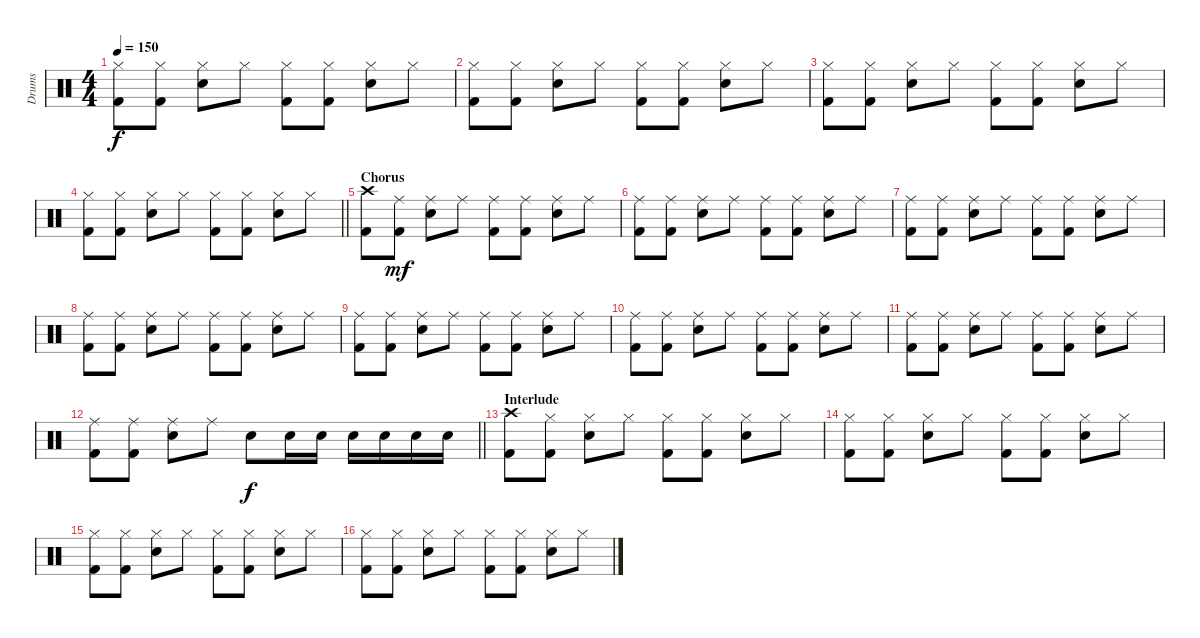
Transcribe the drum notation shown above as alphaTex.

\track ("Drums" "Drums") {instrument percussion}
\staff {score}
\articulation defaults
\ts (4 4)
\tempo 150
\clef neutral
\ks c
("Hi-Hat (closed)" "Kick (hit) 2").8{dy f} ("Hi-Hat (closed)" "Kick (hit) 2").8 ("Hi-Hat (closed)" "Electric Snare (hit)").8 "Hi-Hat (closed)".8 ("Hi-Hat (closed)" "Kick (hit) 2").8 ("Hi-Hat (closed)" "Kick (hit) 2").8 ("Hi-Hat (closed)" "Electric Snare (hit)").8 "Hi-Hat (closed)".8 |
("Hi-Hat (closed)" "Kick (hit) 2").8 ("Hi-Hat (closed)" "Kick (hit) 2").8 ("Hi-Hat (closed)" "Electric Snare (hit)").8 "Hi-Hat (closed)".8 ("Hi-Hat (closed)" "Kick (hit) 2").8 ("Hi-Hat (closed)" "Kick (hit) 2").8 ("Hi-Hat (closed)" "Electric Snare (hit)").8 "Hi-Hat (closed)".8 |
("Hi-Hat (closed)" "Kick (hit) 2").8 ("Hi-Hat (closed)" "Kick (hit) 2").8 ("Hi-Hat (closed)" "Electric Snare (hit)").8 "Hi-Hat (closed)".8 ("Hi-Hat (closed)" "Kick (hit) 2").8 ("Hi-Hat (closed)" "Kick (hit) 2").8 ("Hi-Hat (closed)" "Electric Snare (hit)").8 "Hi-Hat (closed)".8 |
\barLineRight lightlight
("Hi-Hat (closed)" "Kick (hit) 2").8 ("Hi-Hat (closed)" "Kick (hit) 2").8 ("Hi-Hat (closed)" "Electric Snare (hit)").8 "Hi-Hat (closed)".8 ("Hi-Hat (closed)" "Kick (hit) 2").8 ("Hi-Hat (closed)" "Kick (hit) 2").8 ("Hi-Hat (closed)" "Electric Snare (hit)").8 "Hi-Hat (closed)".8 |
\section ("" "Chorus")
("Crash high (hit)" "Kick (hit) 2").8 ("Ride (middle)" "Kick (hit) 2").8{dy mf} ("Ride (middle)" "Electric Snare (hit)").8 "Ride (middle)".8 ("Ride (middle)" "Kick (hit) 2").8 ("Ride (middle)" "Kick (hit) 2").8 ("Ride (middle)" "Electric Snare (hit)").8 "Ride (middle)".8 |
("Ride (middle)" "Kick (hit) 2").8 ("Ride (middle)" "Kick (hit) 2").8 ("Ride (middle)" "Electric Snare (hit)").8 "Ride (middle)".8 ("Ride (middle)" "Kick (hit) 2").8 ("Ride (middle)" "Kick (hit) 2").8 ("Ride (middle)" "Electric Snare (hit)").8 "Ride (middle)".8 |
("Ride (middle)" "Kick (hit) 2").8 ("Ride (middle)" "Kick (hit) 2").8 ("Ride (middle)" "Electric Snare (hit)").8 "Ride (middle)".8 ("Ride (middle)" "Kick (hit) 2").8 ("Ride (middle)" "Kick (hit) 2").8 ("Ride (middle)" "Electric Snare (hit)").8 "Ride (middle)".8 |
("Ride (middle)" "Kick (hit) 2").8 ("Ride (middle)" "Kick (hit) 2").8 ("Ride (middle)" "Electric Snare (hit)").8 "Ride (middle)".8 ("Ride (middle)" "Kick (hit) 2").8 ("Ride (middle)" "Kick (hit) 2").8 ("Ride (middle)" "Electric Snare (hit)").8 "Ride (middle)".8 |
("Ride (middle)" "Kick (hit) 2").8 ("Ride (middle)" "Kick (hit) 2").8 ("Ride (middle)" "Electric Snare (hit)").8 "Ride (middle)".8 ("Ride (middle)" "Kick (hit) 2").8 ("Ride (middle)" "Kick (hit) 2").8 ("Ride (middle)" "Electric Snare (hit)").8 "Ride (middle)".8 |
("Ride (middle)" "Kick (hit) 2").8 ("Ride (middle)" "Kick (hit) 2").8 ("Ride (middle)" "Electric Snare (hit)").8 "Ride (middle)".8 ("Ride (middle)" "Kick (hit) 2").8 ("Ride (middle)" "Kick (hit) 2").8 ("Ride (middle)" "Electric Snare (hit)").8 "Ride (middle)".8 |
("Ride (middle)" "Kick (hit) 2").8 ("Ride (middle)" "Kick (hit) 2").8 ("Ride (middle)" "Electric Snare (hit)").8 "Ride (middle)".8 ("Ride (middle)" "Kick (hit) 2").8 ("Ride (middle)" "Kick (hit) 2").8 ("Ride (middle)" "Electric Snare (hit)").8 "Ride (middle)".8 |
\barLineRight lightlight
("Ride (middle)" "Kick (hit) 2").8 ("Ride (middle)" "Kick (hit) 2").8 ("Ride (middle)" "Electric Snare (hit)").8 "Ride (middle)".8 "Electric Snare (hit)".8{dy f} "Electric Snare (hit)".16 "Electric Snare (hit)".16 "Electric Snare (hit)".16 "Electric Snare (hit)".16 "Electric Snare (hit)".16 "Electric Snare (hit)".16 |
\section ("" "Interlude")
("Crash high (hit)" "Kick (hit) 2").8 ("Hi-Hat (closed)" "Kick (hit) 2").8 ("Hi-Hat (closed)" "Electric Snare (hit)").8 "Hi-Hat (closed)".8 ("Hi-Hat (closed)" "Kick (hit) 2").8 ("Hi-Hat (closed)" "Kick (hit) 2").8 ("Hi-Hat (closed)" "Electric Snare (hit)").8 "Hi-Hat (closed)".8 |
("Hi-Hat (closed)" "Kick (hit) 2").8 ("Hi-Hat (closed)" "Kick (hit) 2").8 ("Hi-Hat (closed)" "Electric Snare (hit)").8 "Hi-Hat (closed)".8 ("Hi-Hat (closed)" "Kick (hit) 2").8 ("Hi-Hat (closed)" "Kick (hit) 2").8 ("Hi-Hat (closed)" "Electric Snare (hit)").8 "Hi-Hat (closed)".8 |
("Hi-Hat (closed)" "Kick (hit) 2").8 ("Hi-Hat (closed)" "Kick (hit) 2").8 ("Hi-Hat (closed)" "Electric Snare (hit)").8 "Hi-Hat (closed)".8 ("Hi-Hat (closed)" "Kick (hit) 2").8 ("Hi-Hat (closed)" "Kick (hit) 2").8 ("Hi-Hat (closed)" "Electric Snare (hit)").8 "Hi-Hat (closed)".8 |
("Hi-Hat (closed)" "Kick (hit) 2").8 ("Hi-Hat (closed)" "Kick (hit) 2").8 ("Hi-Hat (closed)" "Electric Snare (hit)").8 "Hi-Hat (closed)".8 ("Hi-Hat (closed)" "Kick (hit) 2").8 ("Hi-Hat (closed)" "Kick (hit) 2").8 ("Hi-Hat (closed)" "Electric Snare (hit)").8 "Hi-Hat (closed)".8
